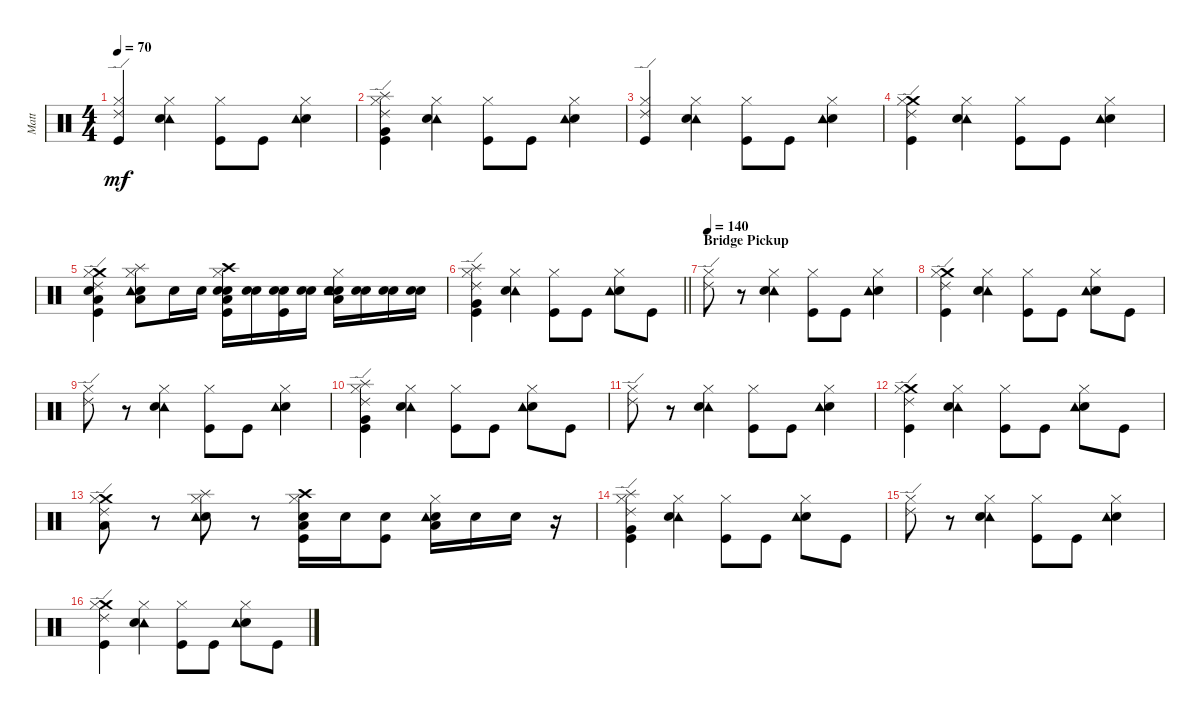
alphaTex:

\track ("Matt" "Matt") {instrument percussion}
\staff {score}
\articulation defaults
\ts (4 4)
\tempo 70
\clef neutral
\ks c
("Ride (edge) 2" "Hi-Hat (closed)" "Kick (hit)").4{dy mf} ("Tambourine (hit)" "Hi-Hat (closed)" "Electric Snare (hit)").4 ("Hi-Hat (closed)" "Kick (hit)").8 "Kick (hit)".8 ("Electric Snare (hit)" "Tambourine (hit)" "Hi-Hat (closed)").4 |
("Splash (hit)" "Very Low Tom (hit)" "Ride (edge) 2" "Hi-Hat (closed)" "Kick (hit)").4 ("Tambourine (hit)" "Hi-Hat (closed)" "Electric Snare (hit)").4 ("Hi-Hat (closed)" "Kick (hit)").8 "Kick (hit)".8 ("Electric Snare (hit)" "Tambourine (hit)" "Hi-Hat (closed)").4 |
("Ride (edge) 2" "Hi-Hat (closed)" "Kick (hit)").4 ("Tambourine (hit)" "Hi-Hat (closed)" "Electric Snare (hit)").4 ("Hi-Hat (closed)" "Kick (hit)").8 "Kick (hit)".8 ("Electric Snare (hit)" "Tambourine (hit)" "Hi-Hat (closed)").4 |
("Crash medium (hit)" "Ride (edge) 2" "Hi-Hat (closed)" "Kick (hit)").4 ("Tambourine (hit)" "Hi-Hat (closed)" "Electric Snare (hit)").4 ("Hi-Hat (closed)" "Kick (hit)").8 "Kick (hit)".8 ("Electric Snare (hit)" "Tambourine (hit)" "Hi-Hat (closed)").4 |
("Crash medium (hit)" "Low Tom (hit)" "Electric Snare (hit)" "Ride (edge) 2" "Hi-Hat (closed)" "Kick (hit)").4 ("Splash (hit)" "Low Tom (hit)" "Electric Snare (hit)" "Tambourine (hit)" "Hi-Hat (closed)").8 "Electric Snare (hit)".16 "Electric Snare (hit)".16 ("Snare (hit) 2" "Crash high (hit)" "Low Tom (hit)" "Electric Snare (hit)" "Hi-Hat (closed)" "Kick (hit)").16 ("Snare (hit) 2" "Electric Snare (hit)").16 ("Snare (hit) 2" "Electric Snare (hit)" "Kick (hit)").16 ("Snare (hit) 2" "Electric Snare (hit)").16 ("Snare (hit) 2" "Low Tom (hit)" "Electric Snare (hit)" "Tambourine (hit)" "Hi-Hat (closed)").16 ("Snare (hit) 2" "Electric Snare (hit)").16 ("Snare (hit) 2" "Electric Snare (hit)").16 ("Snare (hit) 2" "Electric Snare (hit)").16 |
\barLineRight lightlight
("Splash (hit)" "Very Low Tom (hit)" "Ride (edge) 2" "Hi-Hat (closed)" "Kick (hit)").4 ("Tambourine (hit)" "Hi-Hat (closed)" "Electric Snare (hit)").4 ("Hi-Hat (closed)" "Kick (hit)").8 "Kick (hit)".8 ("Electric Snare (hit)" "Tambourine (hit)" "Hi-Hat (closed)").8 "Kick (hit)".8 |
\section ("" "Bridge Pickup")
\tempo 140
("Ride (edge) 2" "Hi-Hat (closed)").8 r.8 ("Tambourine (hit)" "Hi-Hat (closed)" "Electric Snare (hit)").4 ("Hi-Hat (closed)" "Kick (hit)").8 "Kick (hit)".8 ("Electric Snare (hit)" "Tambourine (hit)" "Hi-Hat (closed)").4 |
("Crash medium (hit)" "Ride (edge) 2" "Hi-Hat (closed)" "Kick (hit)").4 ("Tambourine (hit)" "Hi-Hat (closed)" "Electric Snare (hit)").4 ("Hi-Hat (closed)" "Kick (hit)").8 "Kick (hit)".8 ("Electric Snare (hit)" "Tambourine (hit)" "Hi-Hat (closed)").8 "Kick (hit)".8 |
("Ride (edge) 2" "Hi-Hat (closed)").8 r.8 ("Tambourine (hit)" "Hi-Hat (closed)" "Electric Snare (hit)").4 ("Hi-Hat (closed)" "Kick (hit)").8 "Kick (hit)".8 ("Electric Snare (hit)" "Tambourine (hit)" "Hi-Hat (closed)").4 |
("Splash (hit)" "Very Low Tom (hit)" "Ride (edge) 2" "Hi-Hat (closed)" "Kick (hit)").4 ("Tambourine (hit)" "Hi-Hat (closed)" "Electric Snare (hit)").4 ("Hi-Hat (closed)" "Kick (hit)").8 "Kick (hit)".8 ("Electric Snare (hit)" "Tambourine (hit)" "Hi-Hat (closed)").8 "Kick (hit)".8 |
("Ride (edge) 2" "Hi-Hat (closed)").8 r.8 ("Tambourine (hit)" "Hi-Hat (closed)" "Electric Snare (hit)").4 ("Hi-Hat (closed)" "Kick (hit)").8 "Kick (hit)".8 ("Electric Snare (hit)" "Tambourine (hit)" "Hi-Hat (closed)").4 |
("Crash medium (hit)" "Ride (edge) 2" "Hi-Hat (closed)" "Kick (hit)").4 ("Tambourine (hit)" "Hi-Hat (closed)" "Electric Snare (hit)").4 ("Hi-Hat (closed)" "Kick (hit)").8 "Kick (hit)".8 ("Electric Snare (hit)" "Tambourine (hit)" "Hi-Hat (closed)").8 "Kick (hit)".8 |
("Crash medium (hit)" "Low Tom (hit)" "Ride (edge) 2" "Hi-Hat (closed)").8 r.8 ("Electric Snare (hit)" "Splash (hit)" "Tambourine (hit)" "Hi-Hat (closed)").8 r.8 ("Crash high (hit)" "Low Tom (hit)" "Electric Snare (hit)" "Hi-Hat (closed)" "Kick (hit)").16 "Electric Snare (hit)".16 ("Electric Snare (hit)" "Kick (hit)").8 ("Low Tom (hit)" "Electric Snare (hit)" "Tambourine (hit)" "Hi-Hat (closed)").16 "Electric Snare (hit)".16 "Electric Snare (hit)".16 r.16 |
("Splash (hit)" "Very Low Tom (hit)" "Ride (edge) 2" "Hi-Hat (closed)" "Kick (hit)").4 ("Tambourine (hit)" "Hi-Hat (closed)" "Electric Snare (hit)").4 ("Hi-Hat (closed)" "Kick (hit)").8 "Kick (hit)".8 ("Electric Snare (hit)" "Tambourine (hit)" "Hi-Hat (closed)").8 "Kick (hit)".8 |
("Ride (edge) 2" "Hi-Hat (closed)").8 r.8 ("Tambourine (hit)" "Hi-Hat (closed)" "Electric Snare (hit)").4 ("Hi-Hat (closed)" "Kick (hit)").8 "Kick (hit)".8 ("Electric Snare (hit)" "Tambourine (hit)" "Hi-Hat (closed)").4 |
("Crash medium (hit)" "Ride (edge) 2" "Hi-Hat (closed)" "Kick (hit)").4 ("Tambourine (hit)" "Hi-Hat (closed)" "Electric Snare (hit)").4 ("Hi-Hat (closed)" "Kick (hit)").8 "Kick (hit)".8 ("Electric Snare (hit)" "Tambourine (hit)" "Hi-Hat (closed)").8 "Kick (hit)".8
